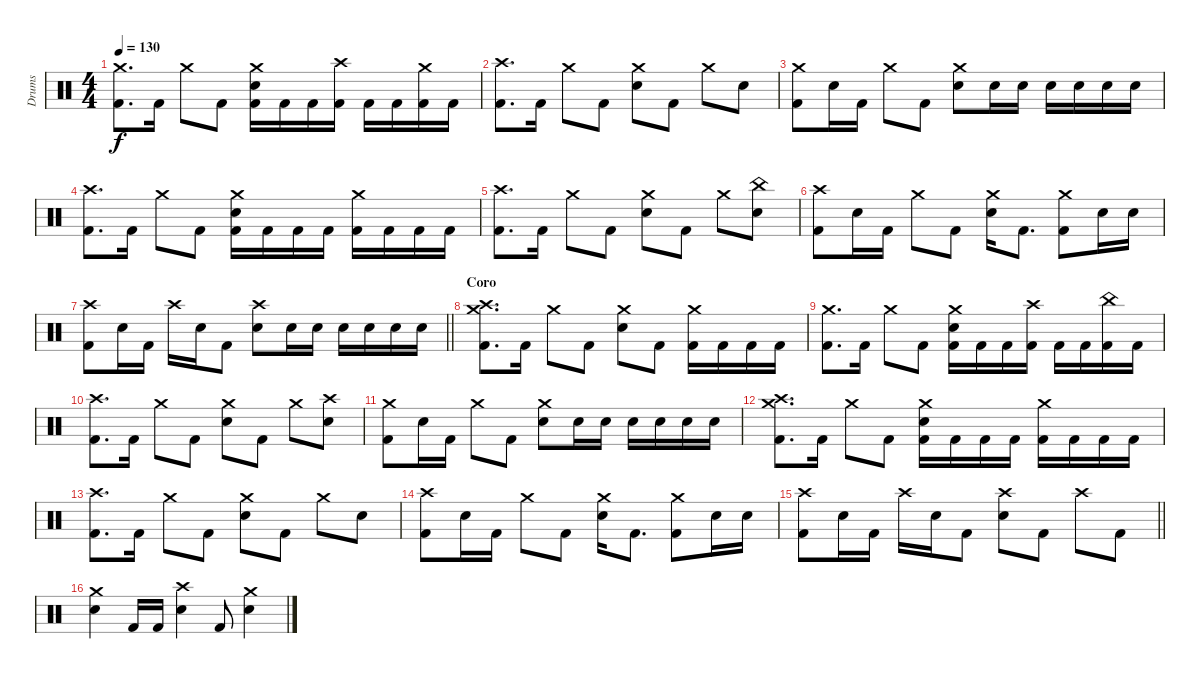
\track ("Drums" "Drums") {instrument percussion}
\staff {score}
\articulation defaults
\ts (4 4)
\tempo 130
\clef neutral
\ks c
("Crash medium (hit)" "Kick (hit) 2").8{d dy f} "Kick (hit) 2".16 "Crash medium (hit)".8 "Kick (hit) 2".8 ("Crash medium (hit)" "Electric Snare (hit)" "Kick (hit) 2").16 "Kick (hit) 2".16 "Kick (hit) 2".16 ("Crash high (hit)" "Kick (hit) 2").16 "Kick (hit) 2".16 "Kick (hit) 2".16 ("Crash medium (hit)" "Kick (hit) 2").16 "Kick (hit) 2".16 |
("Crash high (hit)" "Kick (hit) 2").8{d} "Kick (hit) 2".16 "Crash medium (hit)".8 "Kick (hit) 2".8 ("Crash medium (hit)" "Electric Snare (hit)").8 "Kick (hit) 2".8 "Crash medium (hit)".8 "Electric Snare (hit)".8 |
("Crash medium (hit)" "Kick (hit) 2").8 "Electric Snare (hit)".16 "Kick (hit) 2".16 "Crash medium (hit)".8 "Kick (hit) 2".8 ("Crash medium (hit)" "Electric Snare (hit)").8 "Electric Snare (hit)".16 "Electric Snare (hit)".16 "Electric Snare (hit)".16 "Electric Snare (hit)".16 "Electric Snare (hit)".16 "Electric Snare (hit)".16 |
("Crash high (hit)" "Kick (hit) 2").8{d} "Kick (hit) 2".16 "Crash medium (hit)".8 "Kick (hit) 2".8 ("Crash medium (hit)" "Electric Snare (hit)" "Kick (hit) 2").16 "Kick (hit) 2".16 "Kick (hit) 2".16 "Kick (hit) 2".16 ("Crash medium (hit)" "Kick (hit) 2").16 "Kick (hit) 2".16 "Kick (hit) 2".16 "Kick (hit) 2".16 |
("Crash high (hit)" "Kick (hit) 2").8{d} "Kick (hit) 2".16 "Crash medium (hit)".8 "Kick (hit) 2".8 ("Crash medium (hit)" "Electric Snare (hit)").8 "Kick (hit) 2".8 "Crash medium (hit)".8 ("China (hit)" "Electric Snare (hit)").8 |
("Crash high (hit)" "Kick (hit) 2").8 "Electric Snare (hit)".16 "Kick (hit) 2".16 "Crash medium (hit)".8 "Kick (hit) 2".8 ("Crash medium (hit)" "Electric Snare (hit)").16 "Kick (hit) 2".8{d} ("Crash medium (hit)" "Kick (hit) 2").8 "Electric Snare (hit)".16 "Electric Snare (hit)".16 |
\barLineRight lightlight
("Crash high (hit)" "Kick (hit) 2").8 "Electric Snare (hit)".16 "Kick (hit) 2".16 "Crash high (hit)".16 "Electric Snare (hit)".16 "Kick (hit) 2".8 ("Crash high (hit)" "Electric Snare (hit)").8 "Electric Snare (hit)".16 "Electric Snare (hit)".16 "Electric Snare (hit)".16 "Electric Snare (hit)".16 "Electric Snare (hit)".16 "Electric Snare (hit)".16 |
\section ("" "Coro")
("Crash medium (hit)" "Crash high (hit)" "Kick (hit) 2").8{d} "Kick (hit) 2".16 "Crash medium (hit)".8 "Kick (hit) 2".8 ("Crash medium (hit)" "Electric Snare (hit)").8 "Kick (hit) 2".8 ("Crash medium (hit)" "Kick (hit) 2").16 "Kick (hit) 2".16 "Kick (hit) 2".16 "Kick (hit) 2".16 |
("Crash medium (hit)" "Kick (hit) 2").8{d} "Kick (hit) 2".16 "Crash medium (hit)".8 "Kick (hit) 2".8 ("Crash medium (hit)" "Electric Snare (hit)" "Kick (hit) 2").16 "Kick (hit) 2".16 "Kick (hit) 2".16 ("Crash high (hit)" "Kick (hit) 2").16 "Kick (hit) 2".16 "Kick (hit) 2".16 ("China (hit)" "Kick (hit) 2").16 "Kick (hit) 2".16 |
("Crash high (hit)" "Kick (hit) 2").8{d} "Kick (hit) 2".16 "Crash medium (hit)".8 "Kick (hit) 2".8 ("Crash medium (hit)" "Electric Snare (hit)").8 "Kick (hit) 2".8 "Crash medium (hit)".8 ("Crash high (hit)" "Electric Snare (hit)").8 |
("Crash medium (hit)" "Kick (hit) 2").8 "Electric Snare (hit)".16 "Kick (hit) 2".16 "Crash medium (hit)".8 "Kick (hit) 2".8 ("Crash medium (hit)" "Electric Snare (hit)").8 "Electric Snare (hit)".16 "Electric Snare (hit)".16 "Electric Snare (hit)".16 "Electric Snare (hit)".16 "Electric Snare (hit)".16 "Electric Snare (hit)".16 |
("Crash medium (hit)" "Crash high (hit)" "Kick (hit) 2").8{d} "Kick (hit) 2".16 "Crash medium (hit)".8 "Kick (hit) 2".8 ("Crash medium (hit)" "Electric Snare (hit)" "Kick (hit) 2").16 "Kick (hit) 2".16 "Kick (hit) 2".16 "Kick (hit) 2".16 ("Crash medium (hit)" "Kick (hit) 2").16 "Kick (hit) 2".16 "Kick (hit) 2".16 "Kick (hit) 2".16 |
("Crash high (hit)" "Kick (hit) 2").8{d} "Kick (hit) 2".16 "Crash medium (hit)".8 "Kick (hit) 2".8 ("Crash medium (hit)" "Electric Snare (hit)").8 "Kick (hit) 2".8 "Crash medium (hit)".8 "Electric Snare (hit)".8 |
("Crash high (hit)" "Kick (hit) 2").8 "Electric Snare (hit)".16 "Kick (hit) 2".16 "Crash medium (hit)".8 "Kick (hit) 2".8 ("Crash medium (hit)" "Electric Snare (hit)").16 "Kick (hit) 2".8{d} ("Crash medium (hit)" "Kick (hit) 2").8 "Electric Snare (hit)".16 "Electric Snare (hit)".16 |
\barLineRight lightlight
("Crash high (hit)" "Kick (hit) 2").8 "Electric Snare (hit)".16 "Kick (hit) 2".16 "Crash high (hit)".16 "Electric Snare (hit)".16 "Kick (hit) 2".8 ("Crash high (hit)" "Electric Snare (hit)").8 "Kick (hit) 2".8 "Crash high (hit)".8 "Kick (hit) 2".8 |
("Crash medium (hit)" "Electric Snare (hit)").4 "Kick (hit) 2".16 "Kick (hit) 2".16 ("Crash high (hit)" "Electric Snare (hit)").4 "Kick (hit) 2".8 ("Crash medium (hit)" "Electric Snare (hit)").4
